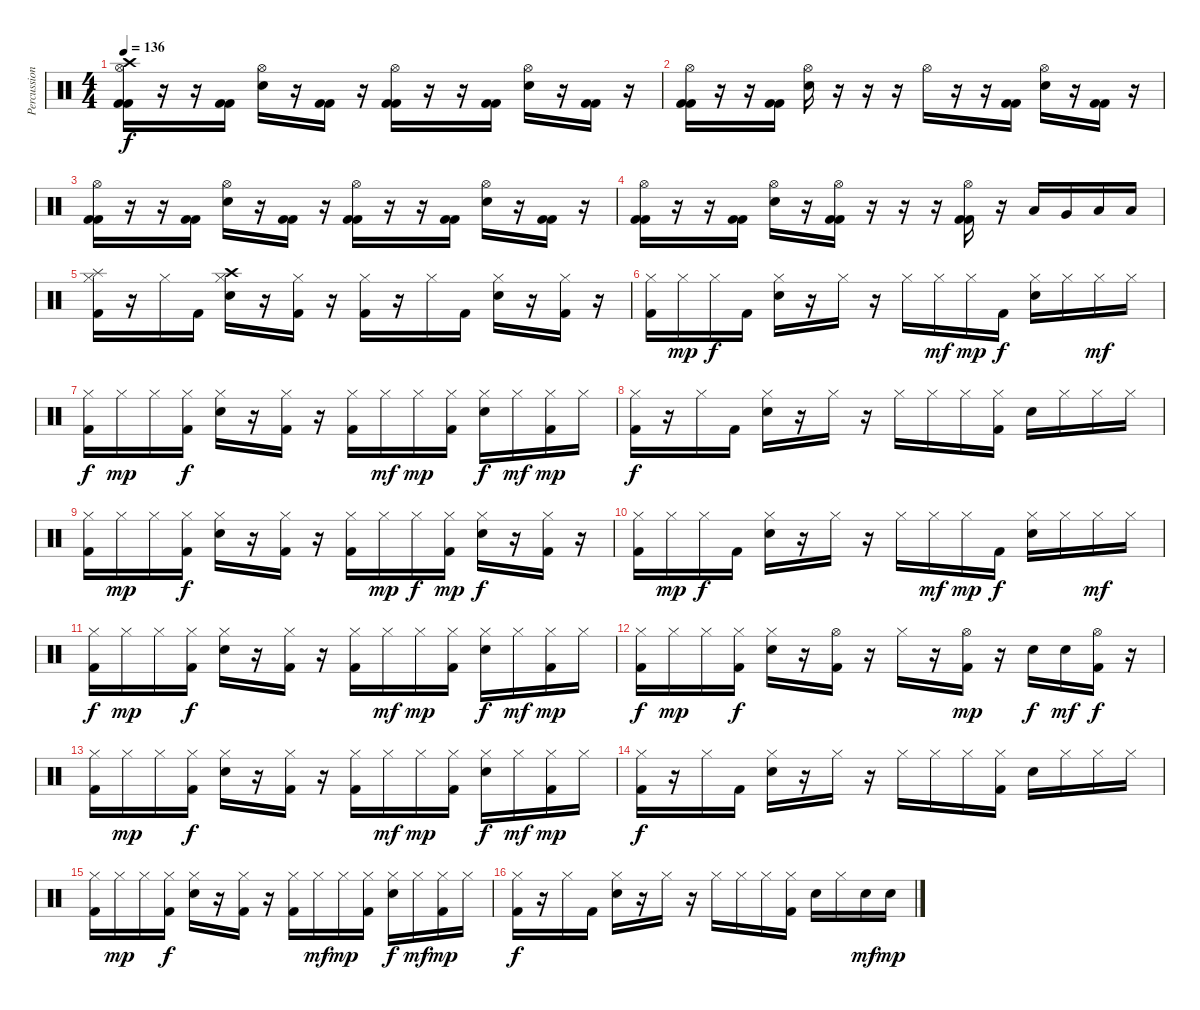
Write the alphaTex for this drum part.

\track ("Percussion" "Percussion") {instrument percussion}
\staff {score}
\articulation defaults
\ts (4 4)
\tempo 136
\clef neutral
\ks c
("Hi-Hat (open)" "Crash high (hit)" "Kick (hit) 2" "Kick (hit) 2").16{dy f} r.16 r.16 ("Kick (hit) 2" "Kick (hit) 2").16 ("Hi-Hat (open)" "Electric Snare (hit)").16 r.16 ("Kick (hit) 2" "Kick (hit) 2").16 r.16 ("Hi-Hat (open)" "Kick (hit) 2" "Kick (hit) 2").16 r.16 r.16 ("Kick (hit) 2" "Kick (hit) 2").16 ("Hi-Hat (open)" "Electric Snare (hit)").16 r.16 ("Kick (hit) 2" "Kick (hit) 2").16 r.16 |
("Hi-Hat (open)" "Kick (hit) 2" "Kick (hit) 2").16 r.16 r.16 ("Kick (hit) 2" "Kick (hit) 2").16 ("Hi-Hat (open)" "Electric Snare (hit)").16 r.16 r.16 r.16 "Hi-Hat (open)".16 r.16 r.16 ("Kick (hit) 2" "Kick (hit) 2").16 ("Hi-Hat (open)" "Electric Snare (hit)").16 r.16 ("Kick (hit) 2" "Kick (hit) 2").16 r.16 |
("Hi-Hat (open)" "Kick (hit) 2" "Kick (hit) 2").16 r.16 r.16 ("Kick (hit) 2" "Kick (hit) 2").16 ("Hi-Hat (open)" "Electric Snare (hit)").16 r.16 ("Kick (hit) 2" "Kick (hit) 2").16 r.16 ("Hi-Hat (open)" "Kick (hit) 2" "Kick (hit) 2").16 r.16 r.16 ("Kick (hit) 2" "Kick (hit) 2").16 ("Hi-Hat (open)" "Electric Snare (hit)").16 r.16 ("Kick (hit) 2" "Kick (hit) 2").16 r.16 |
("Hi-Hat (open)" "Kick (hit) 2" "Kick (hit) 2").16 r.16 r.16 ("Kick (hit) 2" "Kick (hit) 2").16 ("Hi-Hat (open)" "Electric Snare (hit)").16 r.16 ("Hi-Hat (open)" "Kick (hit) 2" "Kick (hit) 2").16 r.16 r.16 r.16 ("Hi-Hat (open)" "Kick (hit) 2" "Kick (hit) 2").16 r.16 "Low Tom (hit)".16 "Very Low Tom (hit)".16 "Low Floor Tom (hit)".16 "Low Floor Tom (hit)".16 |
("Hi-Hat (closed)" "Splash (hit)" "Kick (hit) 2").16 r.16 "Hi-Hat (closed)".16 "Kick (hit) 2".16 ("Hi-Hat (closed)" "Crash high (hit)" "Electric Snare (hit)").16 r.16 ("Hi-Hat (closed)" "Kick (hit) 2").16 r.16 ("Hi-Hat (closed)" "Kick (hit) 2").16 r.16 "Hi-Hat (closed)".16 "Kick (hit) 2".16 ("Hi-Hat (closed)" "Electric Snare (hit)").16 r.16 ("Hi-Hat (closed)" "Kick (hit) 2").16 r.16 |
("Hi-Hat (closed)" "Kick (hit) 2").16 "Hi-Hat (closed)".16{dy mp} "Hi-Hat (closed)".16{dy f} "Kick (hit) 2".16 ("Hi-Hat (closed)" "Electric Snare (hit)").16 r.16 "Hi-Hat (closed)".16 r.16 "Hi-Hat (closed)".16 "Hi-Hat (closed)".16{dy mf} "Hi-Hat (closed)".16{dy mp} "Kick (hit) 2".16{dy f} ("Hi-Hat (closed)" "Electric Snare (hit)").16 "Hi-Hat (closed)".16 "Hi-Hat (closed)".16{dy mf} "Hi-Hat (closed)".16 |
("Hi-Hat (closed)" "Kick (hit) 2").16{dy f} "Hi-Hat (closed)".16{dy mp} "Hi-Hat (closed)".16 ("Hi-Hat (closed)" "Kick (hit) 2").16{dy f} ("Hi-Hat (closed)" "Electric Snare (hit)").16 r.16 ("Hi-Hat (closed)" "Kick (hit) 2").16 r.16 ("Hi-Hat (closed)" "Kick (hit) 2").16 "Hi-Hat (closed)".16{dy mf} "Hi-Hat (closed)".16{dy mp} ("Hi-Hat (closed)" "Kick (hit) 2").16 ("Hi-Hat (closed)" "Electric Snare (hit)").16{dy f} "Hi-Hat (closed)".16{dy mf} ("Hi-Hat (closed)" "Kick (hit) 2").16{dy mp} "Hi-Hat (closed)".16 |
("Hi-Hat (closed)" "Kick (hit) 2").16{dy f} r.16 "Hi-Hat (closed)".16 "Kick (hit) 2".16 ("Hi-Hat (closed)" "Electric Snare (hit)").16 r.16 "Hi-Hat (closed)".16 r.16 "Hi-Hat (closed)".16 "Hi-Hat (closed)".16 "Hi-Hat (closed)".16 ("Hi-Hat (closed)" "Kick (hit) 2").16 "Electric Snare (hit)".16 "Hi-Hat (closed)".16 "Hi-Hat (closed)".16 "Hi-Hat (closed)".16 |
("Hi-Hat (closed)" "Kick (hit) 2").16 "Hi-Hat (closed)".16{dy mp} "Hi-Hat (closed)".16 ("Hi-Hat (closed)" "Kick (hit) 2").16{dy f} ("Hi-Hat (closed)" "Electric Snare (hit)").16 r.16 ("Hi-Hat (closed)" "Kick (hit) 2").16 r.16 ("Hi-Hat (closed)" "Kick (hit) 2").16 "Hi-Hat (closed)".16{dy mp} "Hi-Hat (closed)".16{dy f} ("Hi-Hat (closed)" "Kick (hit) 2").16{dy mp} ("Hi-Hat (closed)" "Electric Snare (hit)").16{dy f} r.16 ("Hi-Hat (closed)" "Kick (hit) 2").16 r.16 |
("Hi-Hat (closed)" "Kick (hit) 2").16 "Hi-Hat (closed)".16{dy mp} "Hi-Hat (closed)".16{dy f} "Kick (hit) 2".16 ("Hi-Hat (closed)" "Electric Snare (hit)").16 r.16 "Hi-Hat (closed)".16 r.16 "Hi-Hat (closed)".16 "Hi-Hat (closed)".16{dy mf} "Hi-Hat (closed)".16{dy mp} "Kick (hit) 2".16{dy f} ("Hi-Hat (closed)" "Electric Snare (hit)").16 "Hi-Hat (closed)".16 "Hi-Hat (closed)".16{dy mf} "Hi-Hat (closed)".16 |
("Hi-Hat (closed)" "Kick (hit) 2").16{dy f} "Hi-Hat (closed)".16{dy mp} "Hi-Hat (closed)".16 ("Hi-Hat (closed)" "Kick (hit) 2").16{dy f} ("Hi-Hat (closed)" "Electric Snare (hit)").16 r.16 ("Hi-Hat (closed)" "Kick (hit) 2").16 r.16 ("Hi-Hat (closed)" "Kick (hit) 2").16 "Hi-Hat (closed)".16{dy mf} "Hi-Hat (closed)".16{dy mp} ("Hi-Hat (closed)" "Kick (hit) 2").16 ("Hi-Hat (closed)" "Electric Snare (hit)").16{dy f} "Hi-Hat (closed)".16{dy mf} ("Hi-Hat (closed)" "Kick (hit) 2").16{dy mp} "Hi-Hat (closed)".16 |
("Hi-Hat (closed)" "Kick (hit) 2").16{dy f} "Hi-Hat (closed)".16{dy mp} "Hi-Hat (closed)".16 ("Hi-Hat (closed)" "Kick (hit) 2").16{dy f} ("Hi-Hat (closed)" "Electric Snare (hit)").16 r.16 ("Hi-Hat (open)" "Kick (hit) 2").16 r.16 "Hi-Hat (closed)".16 r.16 ("Hi-Hat (open)" "Kick (hit) 2").16{dy mp} r.16 "Electric Snare (hit)".16{dy f} "Electric Snare (hit)".16{dy mf} ("Hi-Hat (open)" "Kick (hit) 2").16{dy f} r.16 |
("Hi-Hat (closed)" "Kick (hit) 2").16 "Hi-Hat (closed)".16{dy mp} "Hi-Hat (closed)".16 ("Hi-Hat (closed)" "Kick (hit) 2").16{dy f} ("Hi-Hat (closed)" "Electric Snare (hit)").16 r.16 ("Hi-Hat (closed)" "Kick (hit) 2").16 r.16 ("Hi-Hat (closed)" "Kick (hit) 2").16 "Hi-Hat (closed)".16{dy mf} "Hi-Hat (closed)".16{dy mp} ("Hi-Hat (closed)" "Kick (hit) 2").16 ("Hi-Hat (closed)" "Electric Snare (hit)").16{dy f} "Hi-Hat (closed)".16{dy mf} ("Hi-Hat (closed)" "Kick (hit) 2").16{dy mp} "Hi-Hat (closed)".16 |
("Hi-Hat (closed)" "Kick (hit) 2").16{dy f} r.16 "Hi-Hat (closed)".16 "Kick (hit) 2".16 ("Hi-Hat (closed)" "Electric Snare (hit)").16 r.16 "Hi-Hat (closed)".16 r.16 "Hi-Hat (closed)".16 "Hi-Hat (closed)".16 "Hi-Hat (closed)".16 ("Hi-Hat (closed)" "Kick (hit) 2").16 "Electric Snare (hit)".16 "Hi-Hat (closed)".16 "Hi-Hat (closed)".16 "Hi-Hat (closed)".16 |
("Hi-Hat (closed)" "Kick (hit) 2").16 "Hi-Hat (closed)".16{dy mp} "Hi-Hat (closed)".16 ("Hi-Hat (closed)" "Kick (hit) 2").16{dy f} ("Hi-Hat (closed)" "Electric Snare (hit)").16 r.16 ("Hi-Hat (closed)" "Kick (hit) 2").16 r.16 ("Hi-Hat (closed)" "Kick (hit) 2").16 "Hi-Hat (closed)".16{dy mf} "Hi-Hat (closed)".16{dy mp} ("Hi-Hat (closed)" "Kick (hit) 2").16 ("Hi-Hat (closed)" "Electric Snare (hit)").16{dy f} "Hi-Hat (closed)".16{dy mf} ("Hi-Hat (closed)" "Kick (hit) 2").16{dy mp} "Hi-Hat (closed)".16 |
("Hi-Hat (closed)" "Kick (hit) 2").16{dy f} r.16 "Hi-Hat (closed)".16 "Kick (hit) 2".16 ("Hi-Hat (closed)" "Electric Snare (hit)").16 r.16 "Hi-Hat (closed)".16 r.16 "Hi-Hat (closed)".16 "Hi-Hat (closed)".16 "Hi-Hat (closed)".16 ("Hi-Hat (closed)" "Kick (hit) 2").16 "Electric Snare (hit)".16 "Hi-Hat (closed)".16 "Electric Snare (hit)".16{dy mf} "Electric Snare (hit)".16{dy mp}
